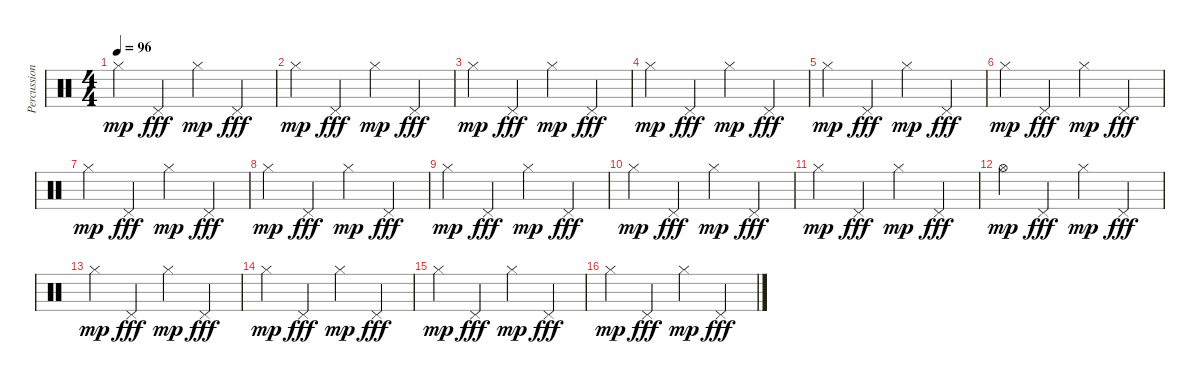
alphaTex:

\track ("Percussions" "Percussion") {instrument percussion}
\staff {score}
\articulation defaults
\ts (4 4)
\tempo 96
\clef neutral
\ks c "Hi-Hat (closed)".4{dy mp} "Pedal Hi-Hat (hit)".4{dy fff} "Hi-Hat (closed)".4{dy mp} "Pedal Hi-Hat (hit)".4{dy fff}
|
"Hi-Hat (closed)".4{dy mp} "Pedal Hi-Hat (hit)".4{dy fff} "Hi-Hat (closed)".4{dy mp} "Pedal Hi-Hat (hit)".4{dy fff} |
"Hi-Hat (closed)".4{dy mp} "Pedal Hi-Hat (hit)".4{dy fff} "Hi-Hat (closed)".4{dy mp} "Pedal Hi-Hat (hit)".4{dy fff} |
"Hi-Hat (closed)".4{dy mp} "Pedal Hi-Hat (hit)".4{dy fff} "Hi-Hat (closed)".4{dy mp} "Pedal Hi-Hat (hit)".4{dy fff} |
"Hi-Hat (closed)".4{dy mp} "Pedal Hi-Hat (hit)".4{dy fff} "Hi-Hat (closed)".4{dy mp} "Pedal Hi-Hat (hit)".4{dy fff} |
"Hi-Hat (closed)".4{dy mp} "Pedal Hi-Hat (hit)".4{dy fff} "Hi-Hat (closed)".4{dy mp} "Pedal Hi-Hat (hit)".4{dy fff} |
"Hi-Hat (closed)".4{dy mp} "Pedal Hi-Hat (hit)".4{dy fff} "Hi-Hat (closed)".4{dy mp} "Pedal Hi-Hat (hit)".4{dy fff} |
"Hi-Hat (closed)".4{dy mp} "Pedal Hi-Hat (hit)".4{dy fff} "Hi-Hat (closed)".4{dy mp} "Pedal Hi-Hat (hit)".4{dy fff} |
"Hi-Hat (closed)".4{dy mp} "Pedal Hi-Hat (hit)".4{dy fff} "Hi-Hat (closed)".4{dy mp} "Pedal Hi-Hat (hit)".4{dy fff} |
"Hi-Hat (closed)".4{dy mp} "Pedal Hi-Hat (hit)".4{dy fff} "Hi-Hat (closed)".4{dy mp} "Pedal Hi-Hat (hit)".4{dy fff} |
"Hi-Hat (closed)".4{dy mp} "Pedal Hi-Hat (hit)".4{dy fff} "Hi-Hat (closed)".4{dy mp} "Pedal Hi-Hat (hit)".4{dy fff} |
"Hi-Hat (open)".4{dy mp} "Pedal Hi-Hat (hit)".4{dy fff} "Hi-Hat (closed)".4{dy mp} "Pedal Hi-Hat (hit)".4{dy fff} |
"Hi-Hat (closed)".4{dy mp} "Pedal Hi-Hat (hit)".4{dy fff} "Hi-Hat (closed)".4{dy mp} "Pedal Hi-Hat (hit)".4{dy fff} |
"Hi-Hat (closed)".4{dy mp} "Pedal Hi-Hat (hit)".4{dy fff} "Hi-Hat (closed)".4{dy mp} "Pedal Hi-Hat (hit)".4{dy fff} |
"Hi-Hat (closed)".4{dy mp} "Pedal Hi-Hat (hit)".4{dy fff} "Hi-Hat (closed)".4{dy mp} "Pedal Hi-Hat (hit)".4{dy fff} |
"Hi-Hat (closed)".4{dy mp} "Pedal Hi-Hat (hit)".4{dy fff} "Hi-Hat (closed)".4{dy mp} "Pedal Hi-Hat (hit)".4{dy fff}
